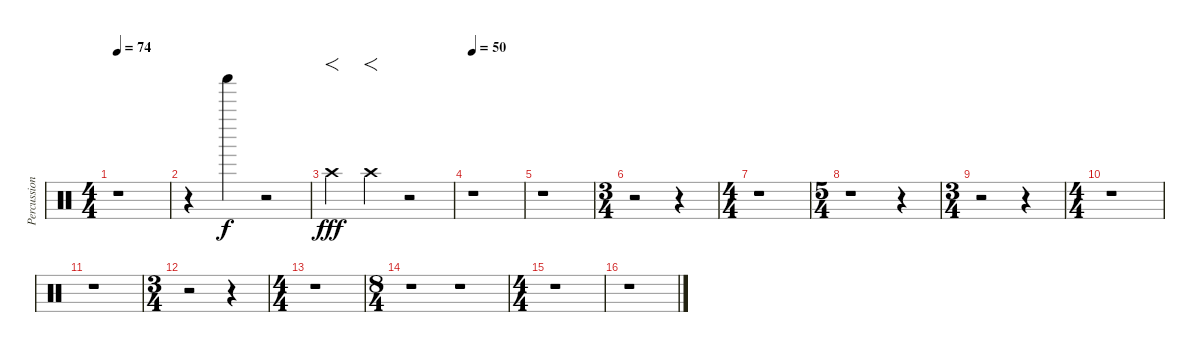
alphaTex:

\track ("Percussion" "Percussion") {instrument percussion}
\staff {score}
\articulation defaults
\ts (4 4)
\tempo 74
\clef neutral
\ks c
r.1{dy mp} |
r.4 "Shaker (hit)".4{dy f} r.2 |
"Crash high (hit)".4{f dy fff} "Crash high (hit)".4{f} r.2 |
\tempo 50
r.1 |
r.1 |
\ts (3 4)
r.2 r.4 |
\ts (4 4)
r.1 |
\ts (5 4)
r.1 r.4 |
\ts (3 4)
r.2 r.4 |
\ts (4 4)
r.1 |
r.1 |
\ts (3 4)
r.2 r.4 |
\ts (4 4)
r.1 |
\ts (8 4)
r.1 r.1 |
\ts (4 4)
r.1 |
r.1
